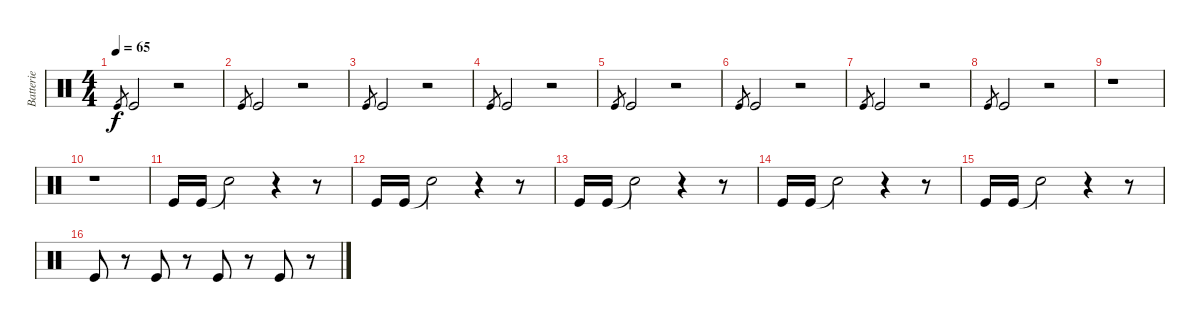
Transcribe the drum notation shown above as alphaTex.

\track ("Batterie" "Batterie") {instrument percussion}
\staff {score}
\articulation defaults
\ts (4 4)
\tempo 65
\clef neutral
\ks c "Kick (hit)".8{gr dy f} "Kick (hit)".2
r.2 |
"Kick (hit)".8{gr} "Kick (hit)".2 r.2 |
"Kick (hit)".8{gr} "Kick (hit)".2 r.2 |
"Kick (hit)".8{gr} "Kick (hit)".2 r.2 |
"Kick (hit)".8{gr} "Kick (hit)".2 r.2 |
"Kick (hit)".8{gr} "Kick (hit)".2 r.2 |
"Kick (hit)".8{gr} "Kick (hit)".2 r.2 |
"Kick (hit)".8{gr} "Kick (hit)".2 r.2 |
r.1 |
r.1 |
"Kick (hit)".16 "Kick (hit)".16 "Snare (hit)"{t}.2 r.4 r.8 |
"Kick (hit)".16 "Kick (hit)".16 "Snare (hit)"{t}.2 r.4 r.8 |
"Kick (hit)".16 "Kick (hit)".16 "Snare (hit)"{t}.2 r.4 r.8 |
"Kick (hit)".16 "Kick (hit)".16 "Snare (hit)"{t}.2 r.4 r.8 |
"Kick (hit)".16 "Kick (hit)".16 "Snare (hit)"{t}.2 r.4 r.8 |
"Kick (hit)".8 r.8 "Kick (hit)".8 r.8 "Kick (hit)".8 r.8 "Kick (hit)".8 r.8
